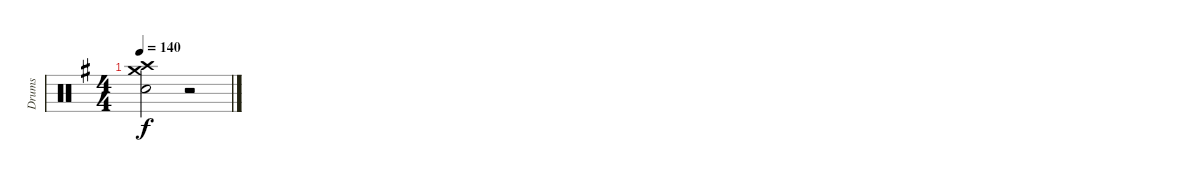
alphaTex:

\track ("Drums" "Drums") {instrument percussion}
\staff {score}
\articulation defaults
\ts (4 4)
\tempo 140
\clef neutral
\ks g
("Crash high (hit)" "Crash medium (hit)" "Snare (hit) 2").2{dy f} r.2
